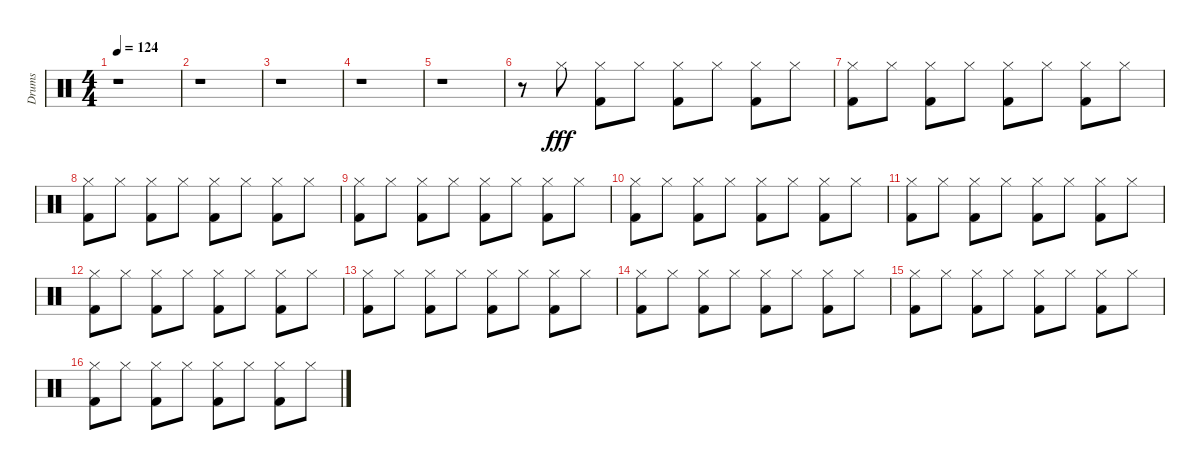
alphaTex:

\track ("Drums" "Drums") {instrument percussion}
\staff {score}
\articulation defaults
\ts (4 4)
\tempo 124
\clef neutral
\ks c
r.1{dy fff} |
r.1 |
r.1 |
r.1 |
r.1 |
r.8 "Hi-Hat (closed)".8 ("Hi-Hat (closed)" "Kick (hit) 2").8 "Hi-Hat (closed)".8 ("Hi-Hat (closed)" "Kick (hit) 2").8 "Hi-Hat (closed)".8 ("Hi-Hat (closed)" "Kick (hit) 2").8 "Hi-Hat (closed)".8 |
("Hi-Hat (closed)" "Kick (hit) 2").8 "Hi-Hat (closed)".8 ("Hi-Hat (closed)" "Kick (hit) 2").8 "Hi-Hat (closed)".8 ("Hi-Hat (closed)" "Kick (hit) 2").8 "Hi-Hat (closed)".8 ("Hi-Hat (closed)" "Kick (hit) 2").8 "Hi-Hat (closed)".8 |
("Hi-Hat (closed)" "Kick (hit) 2").8 "Hi-Hat (closed)".8 ("Hi-Hat (closed)" "Kick (hit) 2").8 "Hi-Hat (closed)".8 ("Hi-Hat (closed)" "Kick (hit) 2").8 "Hi-Hat (closed)".8 ("Hi-Hat (closed)" "Kick (hit) 2").8 "Hi-Hat (closed)".8 |
("Hi-Hat (closed)" "Kick (hit) 2").8 "Hi-Hat (closed)".8 ("Hi-Hat (closed)" "Kick (hit) 2").8 "Hi-Hat (closed)".8 ("Hi-Hat (closed)" "Kick (hit) 2").8 "Hi-Hat (closed)".8 ("Hi-Hat (closed)" "Kick (hit) 2").8 "Hi-Hat (closed)".8 |
("Hi-Hat (closed)" "Kick (hit) 2").8 "Hi-Hat (closed)".8 ("Hi-Hat (closed)" "Kick (hit) 2").8 "Hi-Hat (closed)".8 ("Hi-Hat (closed)" "Kick (hit) 2").8 "Hi-Hat (closed)".8 ("Hi-Hat (closed)" "Kick (hit) 2").8 "Hi-Hat (closed)".8 |
("Hi-Hat (closed)" "Kick (hit) 2").8 "Hi-Hat (closed)".8 ("Hi-Hat (closed)" "Kick (hit) 2").8 "Hi-Hat (closed)".8 ("Hi-Hat (closed)" "Kick (hit) 2").8 "Hi-Hat (closed)".8 ("Hi-Hat (closed)" "Kick (hit) 2").8 "Hi-Hat (closed)".8 |
("Hi-Hat (closed)" "Kick (hit) 2").8 "Hi-Hat (closed)".8 ("Hi-Hat (closed)" "Kick (hit) 2").8 "Hi-Hat (closed)".8 ("Hi-Hat (closed)" "Kick (hit) 2").8 "Hi-Hat (closed)".8 ("Hi-Hat (closed)" "Kick (hit) 2").8 "Hi-Hat (closed)".8 |
("Hi-Hat (closed)" "Kick (hit) 2").8 "Hi-Hat (closed)".8 ("Hi-Hat (closed)" "Kick (hit) 2").8 "Hi-Hat (closed)".8 ("Hi-Hat (closed)" "Kick (hit) 2").8 "Hi-Hat (closed)".8 ("Hi-Hat (closed)" "Kick (hit) 2").8 "Hi-Hat (closed)".8 |
("Hi-Hat (closed)" "Kick (hit) 2").8 "Hi-Hat (closed)".8 ("Hi-Hat (closed)" "Kick (hit) 2").8 "Hi-Hat (closed)".8 ("Hi-Hat (closed)" "Kick (hit) 2").8 "Hi-Hat (closed)".8 ("Hi-Hat (closed)" "Kick (hit) 2").8 "Hi-Hat (closed)".8 |
("Hi-Hat (closed)" "Kick (hit) 2").8 "Hi-Hat (closed)".8 ("Hi-Hat (closed)" "Kick (hit) 2").8 "Hi-Hat (closed)".8 ("Hi-Hat (closed)" "Kick (hit) 2").8 "Hi-Hat (closed)".8 ("Hi-Hat (closed)" "Kick (hit) 2").8 "Hi-Hat (closed)".8 |
("Hi-Hat (closed)" "Kick (hit) 2").8 "Hi-Hat (closed)".8 ("Hi-Hat (closed)" "Kick (hit) 2").8 "Hi-Hat (closed)".8 ("Hi-Hat (closed)" "Kick (hit) 2").8 "Hi-Hat (closed)".8 ("Hi-Hat (closed)" "Kick (hit) 2").8 "Hi-Hat (closed)".8
